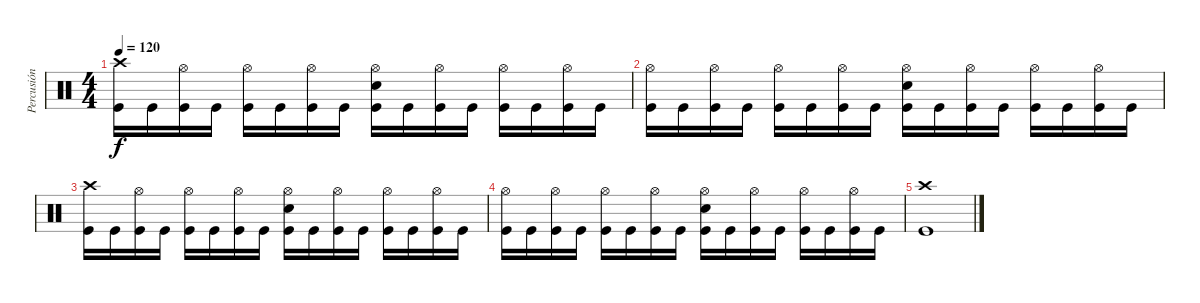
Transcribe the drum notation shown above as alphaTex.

\track ("Percusión" "Percusión") {instrument percussion}
\staff {score}
\articulation defaults
\ts (4 4)
\tempo 120
\clef neutral
\ks c
("Crash high (hit)" "Kick (hit)").16{dy f} "Kick (hit)".16 ("Kick (hit)" "Hi-Hat (open)").16 "Kick (hit)".16 ("Kick (hit)" "Hi-Hat (open)").16 "Kick (hit)".16 ("Kick (hit)" "Hi-Hat (open)").16 "Kick (hit)".16 ("Electric Snare (hit)" "Kick (hit)" "Hi-Hat (open)").16 "Kick (hit)".16 ("Kick (hit)" "Hi-Hat (open)").16 "Kick (hit)".16 ("Kick (hit)" "Hi-Hat (open)").16 "Kick (hit)".16 ("Kick (hit)" "Hi-Hat (open)").16 "Kick (hit)".16 |
("Hi-Hat (open)" "Kick (hit)").16 "Kick (hit)".16 ("Kick (hit)" "Hi-Hat (open)").16 "Kick (hit)".16 ("Kick (hit)" "Hi-Hat (open)").16 "Kick (hit)".16 ("Kick (hit)" "Hi-Hat (open)").16 "Kick (hit)".16 ("Electric Snare (hit)" "Kick (hit)" "Hi-Hat (open)").16 "Kick (hit)".16 ("Kick (hit)" "Hi-Hat (open)").16 "Kick (hit)".16 ("Kick (hit)" "Hi-Hat (open)").16 "Kick (hit)".16 ("Kick (hit)" "Hi-Hat (open)").16 "Kick (hit)".16 |
("Crash high (hit)" "Kick (hit)").16 "Kick (hit)".16 ("Kick (hit)" "Hi-Hat (open)").16 "Kick (hit)".16 ("Kick (hit)" "Hi-Hat (open)").16 "Kick (hit)".16 ("Kick (hit)" "Hi-Hat (open)").16 "Kick (hit)".16 ("Electric Snare (hit)" "Kick (hit)" "Hi-Hat (open)").16 "Kick (hit)".16 ("Kick (hit)" "Hi-Hat (open)").16 "Kick (hit)".16 ("Kick (hit)" "Hi-Hat (open)").16 "Kick (hit)".16 ("Kick (hit)" "Hi-Hat (open)").16 "Kick (hit)".16 |
("Hi-Hat (open)" "Kick (hit)").16 "Kick (hit)".16 ("Kick (hit)" "Hi-Hat (open)").16 "Kick (hit)".16 ("Kick (hit)" "Hi-Hat (open)").16 "Kick (hit)".16 ("Kick (hit)" "Hi-Hat (open)").16 "Kick (hit)".16 ("Electric Snare (hit)" "Kick (hit)" "Hi-Hat (open)").16 "Kick (hit)".16 ("Kick (hit)" "Hi-Hat (open)").16 "Kick (hit)".16 ("Kick (hit)" "Hi-Hat (open)").16 "Kick (hit)".16 ("Kick (hit)" "Hi-Hat (open)").16 "Kick (hit)".16 |
("Kick (hit)" "Crash high (hit)").1
